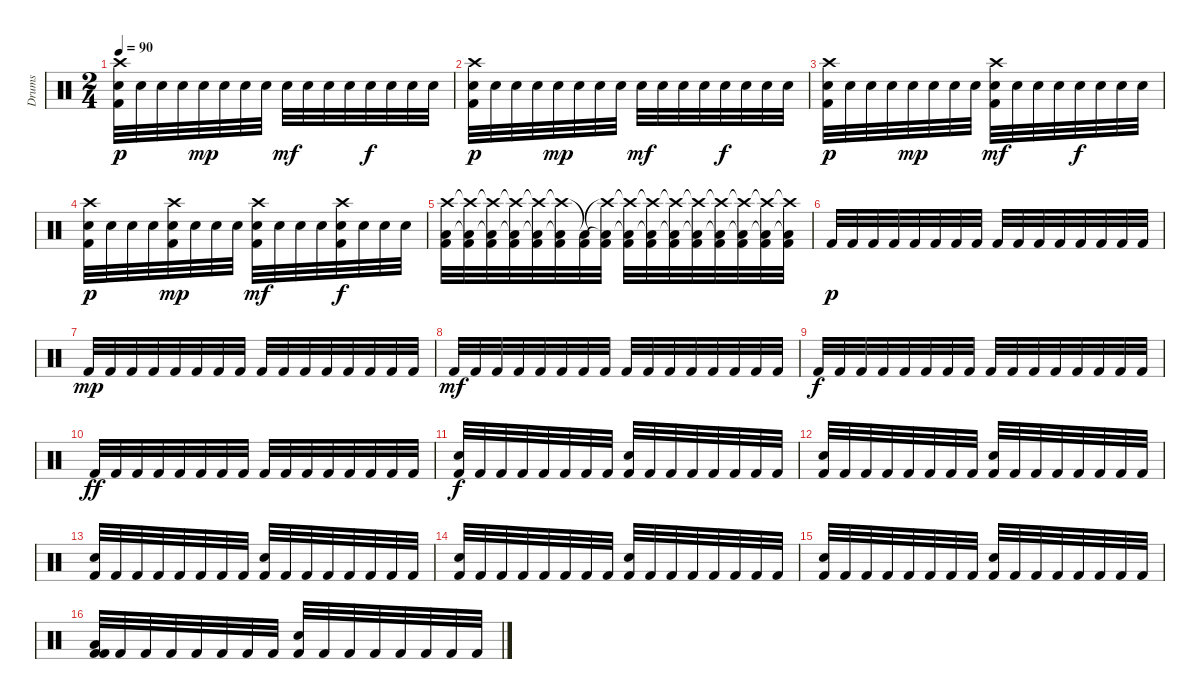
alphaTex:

\track ("Drums" "Drums") {instrument percussion}
\staff {score}
\articulation defaults
\ts (2 4)
\tempo 90
\clef neutral
\ks c
("Crash high (hit)" "Kick (hit) 2" "Snare (hit) 2").32{dy p} "Snare (hit) 2".32 "Snare (hit) 2".32 "Snare (hit) 2".32 "Snare (hit) 2".32{dy mp} "Snare (hit) 2".32 "Snare (hit) 2".32 "Snare (hit) 2".32 "Snare (hit) 2".32{dy mf} "Snare (hit) 2".32 "Snare (hit) 2".32 "Snare (hit) 2".32 "Snare (hit) 2".32{dy f} "Snare (hit) 2".32 "Snare (hit) 2".32 "Snare (hit) 2".32 |
("Crash high (hit)" "Kick (hit) 2" "Snare (hit) 2").32{dy p} "Snare (hit) 2".32 "Snare (hit) 2".32 "Snare (hit) 2".32 "Snare (hit) 2".32{dy mp} "Snare (hit) 2".32 "Snare (hit) 2".32 "Snare (hit) 2".32 "Snare (hit) 2".32{dy mf} "Snare (hit) 2".32 "Snare (hit) 2".32 "Snare (hit) 2".32 "Snare (hit) 2".32{dy f} "Snare (hit) 2".32 "Snare (hit) 2".32 "Snare (hit) 2".32 |
("Crash high (hit)" "Kick (hit) 2" "Snare (hit) 2").32{dy p} "Snare (hit) 2".32 "Snare (hit) 2".32 "Snare (hit) 2".32 "Snare (hit) 2".32{dy mp} "Snare (hit) 2".32 "Snare (hit) 2".32 "Snare (hit) 2".32 ("Crash high (hit)" "Kick (hit) 2" "Snare (hit) 2").32{dy mf} "Snare (hit) 2".32 "Snare (hit) 2".32 "Snare (hit) 2".32 "Snare (hit) 2".32{dy f} "Snare (hit) 2".32 "Snare (hit) 2".32 "Snare (hit) 2".32 |
("Crash high (hit)" "Kick (hit) 2" "Snare (hit) 2").32{dy p} "Snare (hit) 2".32 "Snare (hit) 2".32 "Snare (hit) 2".32 ("Crash high (hit)" "Kick (hit) 2" "Snare (hit) 2").32{dy mp} "Snare (hit) 2".32 "Snare (hit) 2".32 "Snare (hit) 2".32 ("Crash high (hit)" "Kick (hit) 2" "Snare (hit) 2").32{dy mf} "Snare (hit) 2".32 "Snare (hit) 2".32 "Snare (hit) 2".32 ("Crash high (hit)" "Kick (hit) 2" "Snare (hit) 2").32{dy f} "Snare (hit) 2".32 "Snare (hit) 2".32 "Snare (hit) 2".32 |
("Crash high (hit)" "Low Floor Tom (hit)" "Kick (hit) 2").32 ("Crash high (hit)"{t} "Low Floor Tom (hit)"{t} "Kick (hit) 2").32 ("Crash high (hit)"{t} "Low Floor Tom (hit)"{t} "Kick (hit) 2").32 ("Crash high (hit)"{t} "Low Floor Tom (hit)"{t} "Kick (hit) 2").32 ("Crash high (hit)"{t} "Low Floor Tom (hit)"{t} "Kick (hit) 2").32 ("Crash high (hit)"{t} "Low Floor Tom (hit)"{t} "Kick (hit) 2").32 ("Low Floor Tom (hit)"{t} "Kick (hit) 2").32 ("Crash high (hit)"{t} "Low Floor Tom (hit)"{t} "Kick (hit) 2").32 ("Crash high (hit)"{t} "Low Floor Tom (hit)"{t} "Kick (hit) 2").32 ("Crash high (hit)"{t} "Low Floor Tom (hit)"{t} "Kick (hit) 2").32 ("Crash high (hit)"{t} "Low Floor Tom (hit)"{t} "Kick (hit) 2").32 ("Crash high (hit)"{t} "Low Floor Tom (hit)"{t} "Kick (hit) 2").32 ("Crash high (hit)"{t} "Low Floor Tom (hit)"{t} "Kick (hit) 2").32 ("Crash high (hit)"{t} "Low Floor Tom (hit)"{t} "Kick (hit) 2").32 ("Crash high (hit)"{t} "Low Floor Tom (hit)"{t} "Kick (hit) 2").32 ("Crash high (hit)"{t} "Low Floor Tom (hit)"{t} "Kick (hit) 2").32 |
"Kick (hit) 2".32{dy p} "Kick (hit) 2".32 "Kick (hit) 2".32 "Kick (hit) 2".32 "Kick (hit) 2".32 "Kick (hit) 2".32 "Kick (hit) 2".32 "Kick (hit) 2".32 "Kick (hit) 2".32 "Kick (hit) 2".32 "Kick (hit) 2".32 "Kick (hit) 2".32 "Kick (hit) 2".32 "Kick (hit) 2".32 "Kick (hit) 2".32 "Kick (hit) 2".32 |
"Kick (hit) 2".32{dy mp} "Kick (hit) 2".32 "Kick (hit) 2".32 "Kick (hit) 2".32 "Kick (hit) 2".32 "Kick (hit) 2".32 "Kick (hit) 2".32 "Kick (hit) 2".32 "Kick (hit) 2".32 "Kick (hit) 2".32 "Kick (hit) 2".32 "Kick (hit) 2".32 "Kick (hit) 2".32 "Kick (hit) 2".32 "Kick (hit) 2".32 "Kick (hit) 2".32 |
"Kick (hit) 2".32{dy mf} "Kick (hit) 2".32 "Kick (hit) 2".32 "Kick (hit) 2".32 "Kick (hit) 2".32 "Kick (hit) 2".32 "Kick (hit) 2".32 "Kick (hit) 2".32 "Kick (hit) 2".32 "Kick (hit) 2".32 "Kick (hit) 2".32 "Kick (hit) 2".32 "Kick (hit) 2".32 "Kick (hit) 2".32 "Kick (hit) 2".32 "Kick (hit) 2".32 |
"Kick (hit) 2".32{dy f} "Kick (hit) 2".32 "Kick (hit) 2".32 "Kick (hit) 2".32 "Kick (hit) 2".32 "Kick (hit) 2".32 "Kick (hit) 2".32 "Kick (hit) 2".32 "Kick (hit) 2".32 "Kick (hit) 2".32 "Kick (hit) 2".32 "Kick (hit) 2".32 "Kick (hit) 2".32 "Kick (hit) 2".32 "Kick (hit) 2".32 "Kick (hit) 2".32 |
"Kick (hit) 2".32{dy ff} "Kick (hit) 2".32 "Kick (hit) 2".32 "Kick (hit) 2".32 "Kick (hit) 2".32 "Kick (hit) 2".32 "Kick (hit) 2".32 "Kick (hit) 2".32 "Kick (hit) 2".32 "Kick (hit) 2".32 "Kick (hit) 2".32 "Kick (hit) 2".32 "Kick (hit) 2".32 "Kick (hit) 2".32 "Kick (hit) 2".32 "Kick (hit) 2".32 |
("Snare (hit) 2" "Kick (hit) 2").32{dy f} "Kick (hit) 2".32 "Kick (hit) 2".32 "Kick (hit) 2".32 "Kick (hit) 2".32 "Kick (hit) 2".32 "Kick (hit) 2".32 "Kick (hit) 2".32 ("Snare (hit) 2" "Kick (hit) 2").32 "Kick (hit) 2".32 "Kick (hit) 2".32 "Kick (hit) 2".32 "Kick (hit) 2".32 "Kick (hit) 2".32 "Kick (hit) 2".32 "Kick (hit) 2".32 |
("Snare (hit) 2" "Kick (hit) 2").32 "Kick (hit) 2".32 "Kick (hit) 2".32 "Kick (hit) 2".32 "Kick (hit) 2".32 "Kick (hit) 2".32 "Kick (hit) 2".32 "Kick (hit) 2".32 ("Snare (hit) 2" "Kick (hit) 2").32 "Kick (hit) 2".32 "Kick (hit) 2".32 "Kick (hit) 2".32 "Kick (hit) 2".32 "Kick (hit) 2".32 "Kick (hit) 2".32 "Kick (hit) 2".32 |
("Snare (hit) 2" "Kick (hit) 2").32 "Kick (hit) 2".32 "Kick (hit) 2".32 "Kick (hit) 2".32 "Kick (hit) 2".32 "Kick (hit) 2".32 "Kick (hit) 2".32 "Kick (hit) 2".32 ("Snare (hit) 2" "Kick (hit) 2").32 "Kick (hit) 2".32 "Kick (hit) 2".32 "Kick (hit) 2".32 "Kick (hit) 2".32 "Kick (hit) 2".32 "Kick (hit) 2".32 "Kick (hit) 2".32 |
("Snare (hit) 2" "Kick (hit) 2").32 "Kick (hit) 2".32 "Kick (hit) 2".32 "Kick (hit) 2".32 "Kick (hit) 2".32 "Kick (hit) 2".32 "Kick (hit) 2".32 "Kick (hit) 2".32 ("Snare (hit) 2" "Kick (hit) 2").32 "Kick (hit) 2".32 "Kick (hit) 2".32 "Kick (hit) 2".32 "Kick (hit) 2".32 "Kick (hit) 2".32 "Kick (hit) 2".32 "Kick (hit) 2".32 |
("Snare (hit) 2" "Kick (hit) 2").32 "Kick (hit) 2".32 "Kick (hit) 2".32 "Kick (hit) 2".32 "Kick (hit) 2".32 "Kick (hit) 2".32 "Kick (hit) 2".32 "Kick (hit) 2".32 ("Snare (hit) 2" "Kick (hit) 2").32 "Kick (hit) 2".32 "Kick (hit) 2".32 "Kick (hit) 2".32 "Kick (hit) 2".32 "Kick (hit) 2".32 "Kick (hit) 2".32 "Kick (hit) 2".32 |
("Kick (hit) 2" "Low Floor Tom (hit)" "Kick (hit) 2").32 "Kick (hit) 2".32 "Kick (hit) 2".32 "Kick (hit) 2".32 "Kick (hit) 2".32 "Kick (hit) 2".32 "Kick (hit) 2".32 "Kick (hit) 2".32 ("Snare (hit) 2" "Kick (hit) 2").32 "Kick (hit) 2".32 "Kick (hit) 2".32 "Kick (hit) 2".32 "Kick (hit) 2".32 "Kick (hit) 2".32 "Kick (hit) 2".32 "Kick (hit) 2".32
